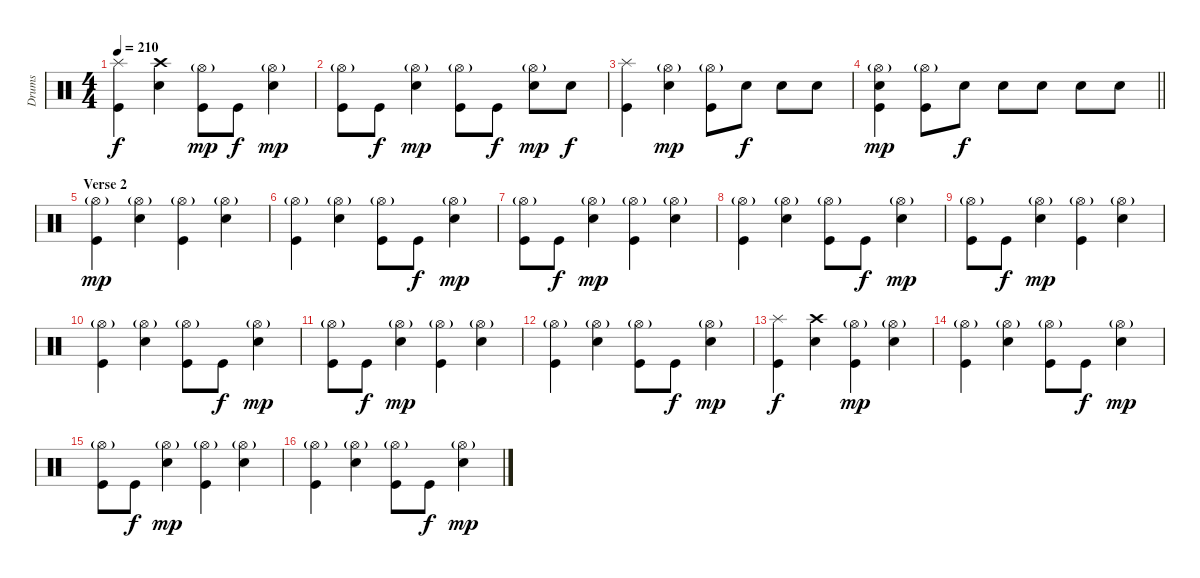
\track ("Drums" "Drums") {instrument percussion}
\staff {score}
\articulation defaults
\ts (4 4)
\tempo 210
\clef neutral
\ks c
("Splash (hit)" "Kick (hit)").4{dy f} ("Crash high (hit)" "Snare (hit) 2").4 ("Hi-Hat (open)"{g} "Kick (hit)").8{dy mp} "Kick (hit)".8{dy f} ("Hi-Hat (open)"{g} "Snare (hit) 2").4{dy mp} |
("Hi-Hat (open)"{g} "Kick (hit)").8 "Kick (hit)".8{dy f} ("Hi-Hat (open)"{g} "Snare (hit) 2").4{dy mp} ("Hi-Hat (open)"{g} "Kick (hit)").8 "Kick (hit)".8{dy f} ("Hi-Hat (open)"{g} "Snare (hit) 2").8{dy mp} "Snare (hit) 2".8{dy f} |
("Splash (hit)" "Kick (hit)").4 ("Hi-Hat (open)"{g} "Snare (hit) 2").4{dy mp} ("Hi-Hat (open)"{g} "Kick (hit)").8 "Snare (hit) 2".8{dy f} "Snare (hit) 2".8 "Snare (hit) 2".8 |
\barLineRight lightlight
("Hi-Hat (open)"{g} "Snare (hit) 2" "Kick (hit)").4{dy mp} ("Hi-Hat (open)"{g} "Kick (hit)").8 "Snare (hit) 2".8{dy f} "Snare (hit) 2".8 "Snare (hit) 2".8 "Snare (hit) 2".8 "Snare (hit) 2".8 |
\section ("" "Verse 2")
("Hi-Hat (open)"{g} "Kick (hit)").4{dy mp} ("Hi-Hat (open)"{g} "Snare (hit) 2").4 ("Hi-Hat (open)"{g} "Kick (hit)").4 ("Hi-Hat (open)"{g} "Snare (hit) 2").4 |
("Hi-Hat (open)"{g} "Kick (hit)").4 ("Hi-Hat (open)"{g} "Snare (hit) 2").4 ("Hi-Hat (open)"{g} "Kick (hit)").8 "Kick (hit)".8{dy f} ("Hi-Hat (open)"{g} "Snare (hit) 2").4{dy mp} |
("Hi-Hat (open)"{g} "Kick (hit)").8 "Kick (hit)".8{dy f} ("Hi-Hat (open)"{g} "Snare (hit) 2").4{dy mp} ("Hi-Hat (open)"{g} "Kick (hit)").4 ("Hi-Hat (open)"{g} "Snare (hit) 2").4 |
("Hi-Hat (open)"{g} "Kick (hit)").4 ("Hi-Hat (open)"{g} "Snare (hit) 2").4 ("Hi-Hat (open)"{g} "Kick (hit)").8 "Kick (hit)".8{dy f} ("Hi-Hat (open)"{g} "Snare (hit) 2").4{dy mp} |
("Hi-Hat (open)"{g} "Kick (hit)").8 "Kick (hit)".8{dy f} ("Hi-Hat (open)"{g} "Snare (hit) 2").4{dy mp} ("Hi-Hat (open)"{g} "Kick (hit)").4 ("Hi-Hat (open)"{g} "Snare (hit) 2").4 |
("Hi-Hat (open)"{g} "Kick (hit)").4 ("Hi-Hat (open)"{g} "Snare (hit) 2").4 ("Hi-Hat (open)"{g} "Kick (hit)").8 "Kick (hit)".8{dy f} ("Hi-Hat (open)"{g} "Snare (hit) 2").4{dy mp} |
("Hi-Hat (open)"{g} "Kick (hit)").8 "Kick (hit)".8{dy f} ("Hi-Hat (open)"{g} "Snare (hit) 2").4{dy mp} ("Hi-Hat (open)"{g} "Kick (hit)").4 ("Hi-Hat (open)"{g} "Snare (hit) 2").4 |
("Hi-Hat (open)"{g} "Kick (hit)").4 ("Hi-Hat (open)"{g} "Snare (hit) 2").4 ("Hi-Hat (open)"{g} "Kick (hit)").8 "Kick (hit)".8{dy f} ("Hi-Hat (open)"{g} "Snare (hit) 2").4{dy mp} |
("Splash (hit)" "Kick (hit)").4{dy f} ("Crash high (hit)" "Snare (hit) 2").4 ("Hi-Hat (open)"{g} "Kick (hit)").4{dy mp} ("Hi-Hat (open)"{g} "Snare (hit) 2").4 |
("Hi-Hat (open)"{g} "Kick (hit)").4 ("Hi-Hat (open)"{g} "Snare (hit) 2").4 ("Hi-Hat (open)"{g} "Kick (hit)").8 "Kick (hit)".8{dy f} ("Hi-Hat (open)"{g} "Snare (hit) 2").4{dy mp} |
("Hi-Hat (open)"{g} "Kick (hit)").8 "Kick (hit)".8{dy f} ("Hi-Hat (open)"{g} "Snare (hit) 2").4{dy mp} ("Hi-Hat (open)"{g} "Kick (hit)").4 ("Hi-Hat (open)"{g} "Snare (hit) 2").4 |
("Hi-Hat (open)"{g} "Kick (hit)").4 ("Hi-Hat (open)"{g} "Snare (hit) 2").4 ("Hi-Hat (open)"{g} "Kick (hit)").8 "Kick (hit)".8{dy f} ("Hi-Hat (open)"{g} "Snare (hit) 2").4{dy mp}
